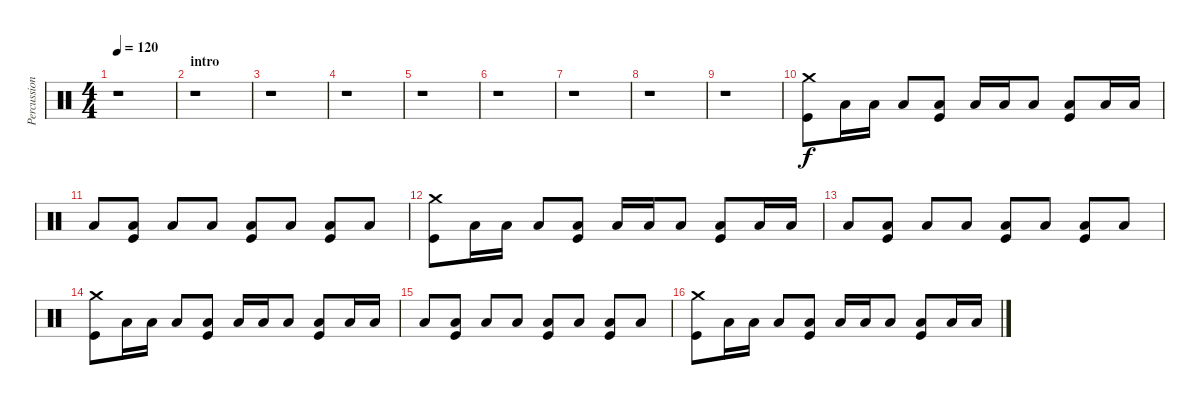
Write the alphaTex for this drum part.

\track ("Percussion" "Percussion") {instrument percussion}
\staff {score}
\articulation defaults
\ts (4 4)
\tempo 120
\clef neutral
\ks c
r.1{dy f} |
\section ("" "intro")
r.1 |
r.1 |
r.1 |
r.1 |
r.1 |
r.1 |
r.1 |
r.1 |
("Crash medium (hit)" "Kick (hit)").8 "Low Floor Tom (hit)".16 "Low Floor Tom (hit)".16 "Low Floor Tom (hit)".8 ("Low Floor Tom (hit)" "Kick (hit)").8 "Low Floor Tom (hit)".16 "Low Floor Tom (hit)".16 "Low Floor Tom (hit)".8 ("Low Floor Tom (hit)" "Kick (hit)").8 "Low Floor Tom (hit)".16 "Low Floor Tom (hit)".16 |
"Low Floor Tom (hit)".8 ("Low Floor Tom (hit)" "Kick (hit)").8 "Low Floor Tom (hit)".8 "Low Floor Tom (hit)".8 ("Low Floor Tom (hit)" "Kick (hit)").8 "Low Floor Tom (hit)".8 ("Low Floor Tom (hit)" "Kick (hit)").8 "Low Floor Tom (hit)".8 |
("Crash medium (hit)" "Kick (hit)").8 "Low Floor Tom (hit)".16 "Low Floor Tom (hit)".16 "Low Floor Tom (hit)".8 ("Low Floor Tom (hit)" "Kick (hit)").8 "Low Floor Tom (hit)".16 "Low Floor Tom (hit)".16 "Low Floor Tom (hit)".8 ("Low Floor Tom (hit)" "Kick (hit)").8 "Low Floor Tom (hit)".16 "Low Floor Tom (hit)".16 |
"Low Floor Tom (hit)".8 ("Low Floor Tom (hit)" "Kick (hit)").8 "Low Floor Tom (hit)".8 "Low Floor Tom (hit)".8 ("Low Floor Tom (hit)" "Kick (hit)").8 "Low Floor Tom (hit)".8 ("Low Floor Tom (hit)" "Kick (hit)").8 "Low Floor Tom (hit)".8 |
("Crash medium (hit)" "Kick (hit)").8 "Low Floor Tom (hit)".16 "Low Floor Tom (hit)".16 "Low Floor Tom (hit)".8 ("Low Floor Tom (hit)" "Kick (hit)").8 "Low Floor Tom (hit)".16 "Low Floor Tom (hit)".16 "Low Floor Tom (hit)".8 ("Low Floor Tom (hit)" "Kick (hit)").8 "Low Floor Tom (hit)".16 "Low Floor Tom (hit)".16 |
"Low Floor Tom (hit)".8 ("Low Floor Tom (hit)" "Kick (hit)").8 "Low Floor Tom (hit)".8 "Low Floor Tom (hit)".8 ("Low Floor Tom (hit)" "Kick (hit)").8 "Low Floor Tom (hit)".8 ("Low Floor Tom (hit)" "Kick (hit)").8 "Low Floor Tom (hit)".8 |
("Crash medium (hit)" "Kick (hit)").8 "Low Floor Tom (hit)".16 "Low Floor Tom (hit)".16 "Low Floor Tom (hit)".8 ("Low Floor Tom (hit)" "Kick (hit)").8 "Low Floor Tom (hit)".16 "Low Floor Tom (hit)".16 "Low Floor Tom (hit)".8 ("Low Floor Tom (hit)" "Kick (hit)").8 "Low Floor Tom (hit)".16 "Low Floor Tom (hit)".16
